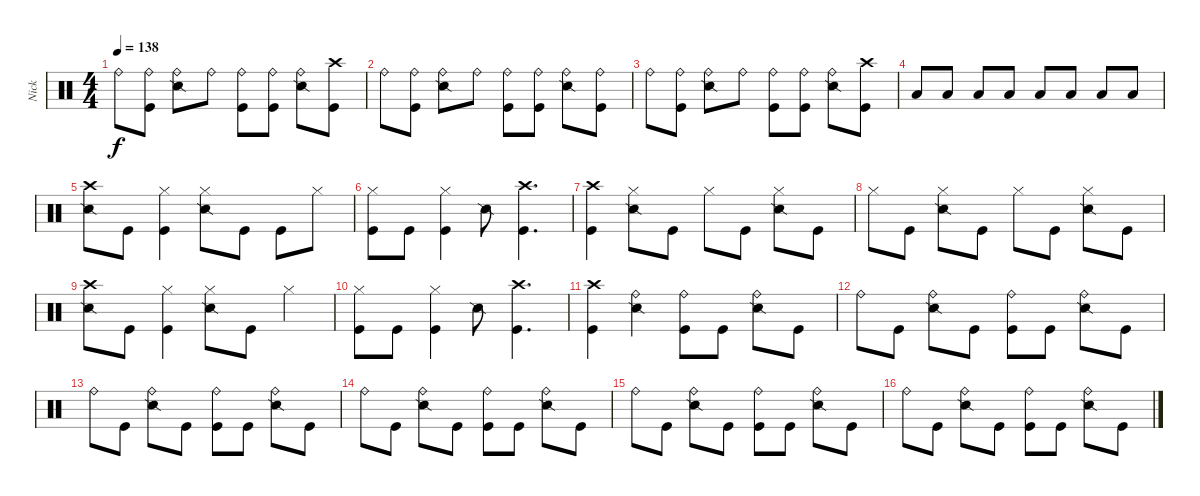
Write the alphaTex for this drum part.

\track ("Nick" "Nick") {instrument percussion}
\staff {score}
\articulation defaults
\ts (4 4)
\tempo 138
\clef neutral
\ks c "Ride (bell)".8{dy f}
("Ride (bell)" "Kick (hit)").8 ("Ride (bell)" "Snare (side stick) 2").8 "Ride (bell)".8 ("Ride (bell)" "Kick (hit)").8 ("Ride (bell)" "Kick (hit)").8 ("Ride (bell)" "Snare (side stick) 2").8 ("Crash high (hit)" "Kick (hit)").8 |
"Ride (bell)".8 ("Ride (bell)" "Kick (hit)").8 ("Ride (bell)" "Snare (side stick) 2").8 "Ride (bell)".8 ("Ride (bell)" "Kick (hit)").8 ("Ride (bell)" "Kick (hit)").8 ("Ride (bell)" "Snare (side stick) 2").8 ("Ride (bell)" "Kick (hit)").8 |
"Ride (bell)".8 ("Ride (bell)" "Kick (hit)").8 ("Ride (bell)" "Snare (side stick) 2").8 "Ride (bell)".8 ("Ride (bell)" "Kick (hit)").8 ("Ride (bell)" "Kick (hit)").8 ("Ride (bell)" "Snare (side stick) 2").8 ("Crash high (hit)" "Kick (hit)").8 |
"Low Floor Tom (hit)".8 "Low Floor Tom (hit)".8 "Low Floor Tom (hit)".8 "Low Floor Tom (hit)".8 "Low Floor Tom (hit)".8 "Low Floor Tom (hit)".8 "Low Floor Tom (hit)".8 "Low Floor Tom (hit)".8 |
("Crash high (hit)" "Snare (side stick) 2").8 "Kick (hit)".8 ("Hi-Hat (closed)" "Kick (hit)").4 ("Hi-Hat (closed)" "Snare (side stick) 2").8 "Kick (hit)".8 "Kick (hit)".8 "Hi-Hat (closed)".8 |
("Hi-Hat (closed)" "Kick (hit)").8 "Kick (hit)".8 ("Hi-Hat (closed)" "Kick (hit)").4 "Snare (side stick) 2".8 ("Crash high (hit)" "Kick (hit)").4{d} |
("Crash high (hit)" "Kick (hit)").4 ("Hi-Hat (closed)" "Snare (side stick) 2").8 "Kick (hit)".8 "Hi-Hat (closed)".8 "Kick (hit)".8 ("Hi-Hat (closed)" "Snare (side stick) 2").8 "Kick (hit)".8 |
"Hi-Hat (closed)".8 "Kick (hit)".8 ("Hi-Hat (closed)" "Snare (side stick) 2").8 "Kick (hit)".8 "Hi-Hat (closed)".8 "Kick (hit)".8 ("Hi-Hat (closed)" "Snare (side stick) 2").8 "Kick (hit)".8 |
("Crash high (hit)" "Snare (side stick) 2").8 "Kick (hit)".8 ("Hi-Hat (closed)" "Kick (hit)").4 ("Hi-Hat (closed)" "Snare (side stick) 2").8 "Kick (hit)".8 "Hi-Hat (closed)".4 |
("Hi-Hat (closed)" "Kick (hit)").8 "Kick (hit)".8 ("Hi-Hat (closed)" "Kick (hit)").4 "Snare (side stick) 2".8 ("Crash high (hit)" "Kick (hit)").4{d} |
("Crash high (hit)" "Kick (hit)").4 ("Ride (bell)" "Snare (side stick) 2").4 ("Ride (bell)" "Kick (hit)").8 "Kick (hit)".8 ("Ride (bell)" "Snare (side stick) 2").8 "Kick (hit)".8 |
"Ride (bell)".8 "Kick (hit)".8 ("Ride (bell)" "Snare (side stick) 2").8 "Kick (hit)".8 ("Ride (bell)" "Kick (hit)").8 "Kick (hit)".8 ("Ride (bell)" "Snare (side stick) 2").8 "Kick (hit)".8 |
"Ride (bell)".8 "Kick (hit)".8 ("Ride (bell)" "Snare (side stick) 2").8 "Kick (hit)".8 ("Ride (bell)" "Kick (hit)").8 "Kick (hit)".8 ("Ride (bell)" "Snare (side stick) 2").8 "Kick (hit)".8 |
"Ride (bell)".8 "Kick (hit)".8 ("Ride (bell)" "Snare (side stick) 2").8 "Kick (hit)".8 ("Ride (bell)" "Kick (hit)").8 "Kick (hit)".8 ("Ride (bell)" "Snare (side stick) 2").8 "Kick (hit)".8 |
"Ride (bell)".8 "Kick (hit)".8 ("Ride (bell)" "Snare (side stick) 2").8 "Kick (hit)".8 ("Ride (bell)" "Kick (hit)").8 "Kick (hit)".8 ("Ride (bell)" "Snare (side stick) 2").8 "Kick (hit)".8 |
"Ride (bell)".8 "Kick (hit)".8 ("Ride (bell)" "Snare (side stick) 2").8 "Kick (hit)".8 ("Ride (bell)" "Kick (hit)").8 "Kick (hit)".8 ("Ride (bell)" "Snare (side stick) 2").8 "Kick (hit)".8
